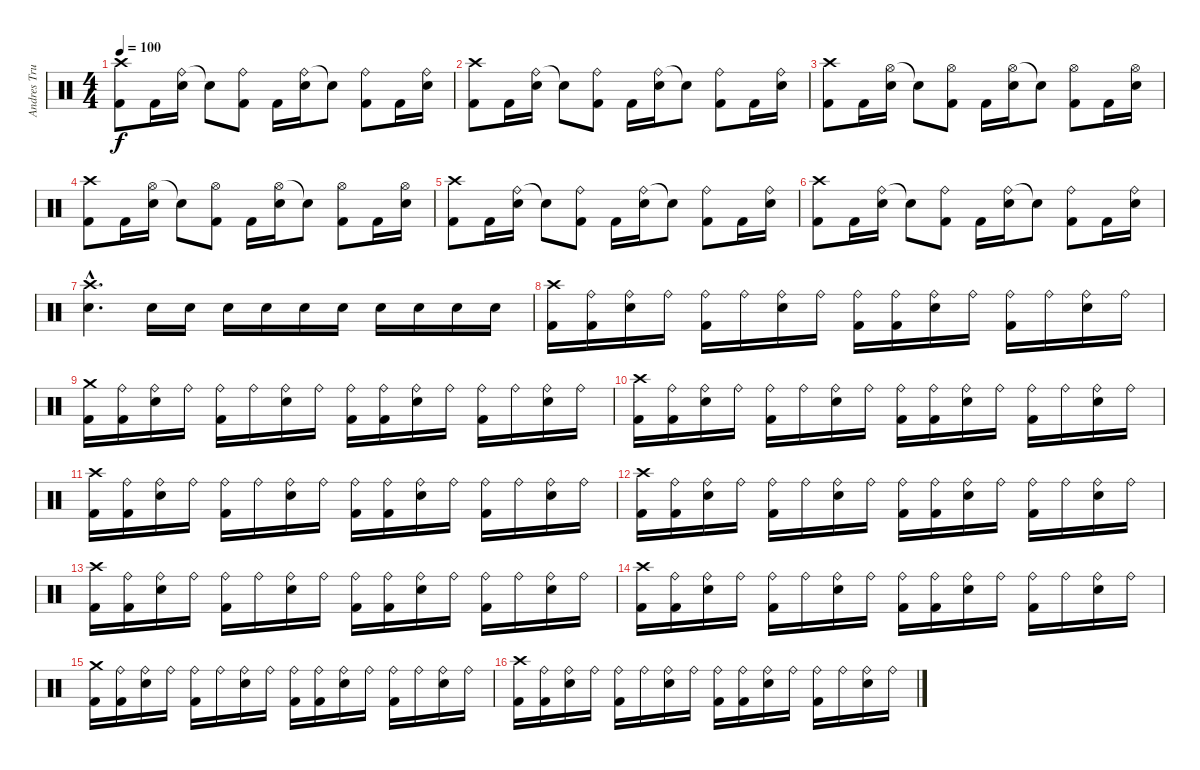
\track ("Andres Trujillo" "Andres Tru") {instrument percussion}
\staff {score}
\articulation defaults
\ts (4 4)
\tempo 100
\clef neutral
\ks c
("Crash high (hit)" "Kick (hit) 2").8{dy f} "Kick (hit) 2".16 ("Ride (bell)" "Electric Snare (hit)").16 "Snare (hit)"{t}.8 ("Ride (bell)" "Kick (hit) 2").8 "Kick (hit) 2".16 ("Ride (bell)" "Electric Snare (hit)").16 "Snare (hit)"{t}.8 ("Ride (bell)" "Kick (hit) 2").8 "Kick (hit) 2".16 ("Ride (bell)" "Electric Snare (hit)").16 |
("Crash high (hit)" "Kick (hit) 2").8 "Kick (hit) 2".16 ("Ride (bell)" "Electric Snare (hit)").16 "Snare (hit)"{t}.8 ("Ride (bell)" "Kick (hit) 2").8 "Kick (hit) 2".16 ("Ride (bell)" "Electric Snare (hit)").16 "Snare (hit)"{t}.8 ("Ride (bell)" "Kick (hit) 2").8 "Kick (hit) 2".16 ("Ride (bell)" "Electric Snare (hit)").16 |
("Crash high (hit)" "Kick (hit) 2").8 "Kick (hit) 2".16 ("Hi-Hat (open)" "Electric Snare (hit)").16 "Snare (hit)"{t}.8 ("Hi-Hat (open)" "Kick (hit) 2").8 "Kick (hit) 2".16 ("Hi-Hat (open)" "Electric Snare (hit)").16 "Snare (hit)"{t}.8 ("Hi-Hat (open)" "Kick (hit) 2").8 "Kick (hit) 2".16 ("Hi-Hat (open)" "Electric Snare (hit)").16 |
("Crash high (hit)" "Kick (hit) 2").8 "Kick (hit) 2".16 ("Hi-Hat (open)" "Electric Snare (hit)").16 "Snare (hit)"{t}.8 ("Hi-Hat (open)" "Kick (hit) 2").8 "Kick (hit) 2".16 ("Hi-Hat (open)" "Electric Snare (hit)").16 "Snare (hit)"{t}.8 ("Hi-Hat (open)" "Kick (hit) 2").8 "Kick (hit) 2".16 ("Hi-Hat (open)" "Electric Snare (hit)").16 |
("Crash high (hit)" "Kick (hit) 2").8 "Kick (hit) 2".16 ("Ride (bell)" "Electric Snare (hit)").16 "Snare (hit)"{t}.8 ("Ride (bell)" "Kick (hit) 2").8 "Kick (hit) 2".16 ("Ride (bell)" "Electric Snare (hit)").16 "Snare (hit)"{t}.8 ("Ride (bell)" "Kick (hit) 2").8 "Kick (hit) 2".16 ("Ride (bell)" "Electric Snare (hit)").16 |
("Crash high (hit)" "Kick (hit) 2").8 "Kick (hit) 2".16 ("Ride (bell)" "Electric Snare (hit)").16 "Snare (hit)"{t}.8 ("Ride (bell)" "Kick (hit) 2").8 "Kick (hit) 2".16 ("Ride (bell)" "Electric Snare (hit)").16 "Snare (hit)"{t}.8 ("Ride (bell)" "Kick (hit) 2").8 "Kick (hit) 2".16 ("Ride (bell)" "Electric Snare (hit)").16 |
("Crash high (hit)"{hac} "Electric Snare (hit)"{hac}).4{d} "Electric Snare (hit)".16 "Electric Snare (hit)".16 "Electric Snare (hit)".16 "Electric Snare (hit)".16 "Electric Snare (hit)".16 "Electric Snare (hit)".16 "Electric Snare (hit)".16 "Electric Snare (hit)".16 "Electric Snare (hit)".16 "Electric Snare (hit)".16 |
("Crash high (hit)" "Kick (hit) 2").16 ("Ride (bell)" "Kick (hit) 2").16 ("Ride (bell)" "Electric Snare (hit)").16 "Ride (bell)".16 ("Ride (bell)" "Kick (hit) 2").16 "Ride (bell)".16 ("Ride (bell)" "Electric Snare (hit)").16 "Ride (bell)".16 ("Ride (bell)" "Kick (hit) 2").16 ("Ride (bell)" "Kick (hit) 2").16 ("Ride (bell)" "Electric Snare (hit)").16 "Ride (bell)".16 ("Ride (bell)" "Kick (hit) 2").16 "Ride (bell)".16 ("Ride (bell)" "Electric Snare (hit)").16 "Ride (bell)".16 |
("Crash medium (hit)" "Kick (hit) 2").16 ("Ride (bell)" "Kick (hit) 2").16 ("Ride (bell)" "Electric Snare (hit)").16 "Ride (bell)".16 ("Ride (bell)" "Kick (hit) 2").16 "Ride (bell)".16 ("Ride (bell)" "Electric Snare (hit)").16 "Ride (bell)".16 ("Ride (bell)" "Kick (hit) 2").16 ("Ride (bell)" "Kick (hit) 2").16 ("Ride (bell)" "Electric Snare (hit)").16 "Ride (bell)".16 ("Ride (bell)" "Kick (hit) 2").16 "Ride (bell)".16 ("Ride (bell)" "Electric Snare (hit)").16 "Ride (bell)".16 |
("Crash high (hit)" "Kick (hit) 2").16 ("Ride (bell)" "Kick (hit) 2").16 ("Ride (bell)" "Electric Snare (hit)").16 "Ride (bell)".16 ("Ride (bell)" "Kick (hit) 2").16 "Ride (bell)".16 ("Ride (bell)" "Electric Snare (hit)").16 "Ride (bell)".16 ("Ride (bell)" "Kick (hit) 2").16 ("Ride (bell)" "Kick (hit) 2").16 ("Ride (bell)" "Electric Snare (hit)").16 "Ride (bell)".16 ("Ride (bell)" "Kick (hit) 2").16 "Ride (bell)".16 ("Ride (bell)" "Electric Snare (hit)").16 "Ride (bell)".16 |
("Crash high (hit)" "Kick (hit) 2").16 ("Ride (bell)" "Kick (hit) 2").16 ("Ride (bell)" "Electric Snare (hit)").16 "Ride (bell)".16 ("Ride (bell)" "Kick (hit) 2").16 "Ride (bell)".16 ("Ride (bell)" "Electric Snare (hit)").16 "Ride (bell)".16 ("Ride (bell)" "Kick (hit) 2").16 ("Ride (bell)" "Kick (hit) 2").16 ("Ride (bell)" "Electric Snare (hit)").16 "Ride (bell)".16 ("Ride (bell)" "Kick (hit) 2").16 "Ride (bell)".16 ("Ride (bell)" "Electric Snare (hit)").16 "Ride (bell)".16 |
("Crash high (hit)" "Kick (hit) 2").16 ("Ride (bell)" "Kick (hit) 2").16 ("Ride (bell)" "Electric Snare (hit)").16 "Ride (bell)".16 ("Ride (bell)" "Kick (hit) 2").16 "Ride (bell)".16 ("Ride (bell)" "Electric Snare (hit)").16 "Ride (bell)".16 ("Ride (bell)" "Kick (hit) 2").16 ("Ride (bell)" "Kick (hit) 2").16 ("Ride (bell)" "Electric Snare (hit)").16 "Ride (bell)".16 ("Ride (bell)" "Kick (hit) 2").16 "Ride (bell)".16 ("Ride (bell)" "Electric Snare (hit)").16 "Ride (bell)".16 |
("Crash high (hit)" "Kick (hit) 2").16 ("Ride (bell)" "Kick (hit) 2").16 ("Ride (bell)" "Electric Snare (hit)").16 "Ride (bell)".16 ("Ride (bell)" "Kick (hit) 2").16 "Ride (bell)".16 ("Ride (bell)" "Electric Snare (hit)").16 "Ride (bell)".16 ("Ride (bell)" "Kick (hit) 2").16 ("Ride (bell)" "Kick (hit) 2").16 ("Ride (bell)" "Electric Snare (hit)").16 "Ride (bell)".16 ("Ride (bell)" "Kick (hit) 2").16 "Ride (bell)".16 ("Ride (bell)" "Electric Snare (hit)").16 "Ride (bell)".16 |
("Crash high (hit)" "Kick (hit) 2").16 ("Ride (bell)" "Kick (hit) 2").16 ("Ride (bell)" "Electric Snare (hit)").16 "Ride (bell)".16 ("Ride (bell)" "Kick (hit) 2").16 "Ride (bell)".16 ("Ride (bell)" "Electric Snare (hit)").16 "Ride (bell)".16 ("Ride (bell)" "Kick (hit) 2").16 ("Ride (bell)" "Kick (hit) 2").16 ("Ride (bell)" "Electric Snare (hit)").16 "Ride (bell)".16 ("Ride (bell)" "Kick (hit) 2").16 "Ride (bell)".16 ("Ride (bell)" "Electric Snare (hit)").16 "Ride (bell)".16 |
("Crash medium (hit)" "Kick (hit) 2").16 ("Ride (bell)" "Kick (hit) 2").16 ("Ride (bell)" "Electric Snare (hit)").16 "Ride (bell)".16 ("Ride (bell)" "Kick (hit) 2").16 "Ride (bell)".16 ("Ride (bell)" "Electric Snare (hit)").16 "Ride (bell)".16 ("Ride (bell)" "Kick (hit) 2").16 ("Ride (bell)" "Kick (hit) 2").16 ("Ride (bell)" "Electric Snare (hit)").16 "Ride (bell)".16 ("Ride (bell)" "Kick (hit) 2").16 "Ride (bell)".16 ("Ride (bell)" "Electric Snare (hit)").16 "Ride (bell)".16 |
("Crash high (hit)" "Kick (hit) 2").16 ("Ride (bell)" "Kick (hit) 2").16 ("Ride (bell)" "Electric Snare (hit)").16 "Ride (bell)".16 ("Ride (bell)" "Kick (hit) 2").16 "Ride (bell)".16 ("Ride (bell)" "Electric Snare (hit)").16 "Ride (bell)".16 ("Ride (bell)" "Kick (hit) 2").16 ("Ride (bell)" "Kick (hit) 2").16 ("Ride (bell)" "Electric Snare (hit)").16 "Ride (bell)".16 ("Ride (bell)" "Kick (hit) 2").16 "Ride (bell)".16 ("Ride (bell)" "Electric Snare (hit)").16 "Ride (bell)".16
